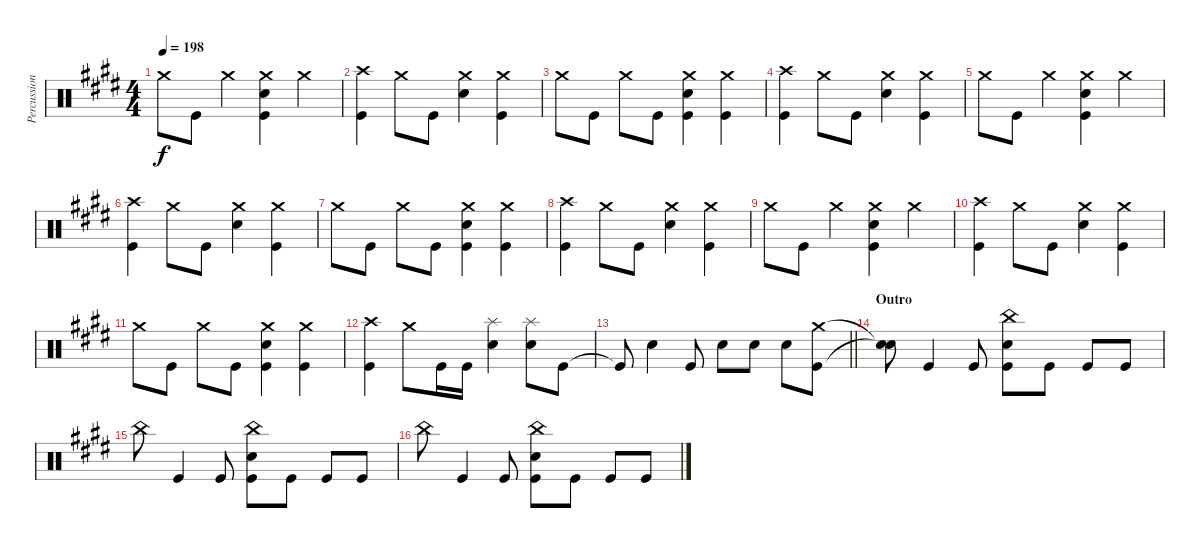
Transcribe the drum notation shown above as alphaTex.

\track ("Percussion" "Percussion") {instrument percussion}
\staff {score}
\articulation defaults
\ts (4 4)
\tempo 198
\clef neutral
\ks e "Crash medium (hit)".8{dy f} "Kick (hit)".8 "Crash medium (hit)".4
("Crash medium (hit)" "Electric Snare (hit)" "Kick (hit)").4 "Crash medium (hit)".4 |
("Crash high (hit)" "Kick (hit)").4 "Crash medium (hit)".8 "Kick (hit)".8 ("Crash medium (hit)" "Electric Snare (hit)").4 ("Crash medium (hit)" "Kick (hit)").4 |
"Crash medium (hit)".8 "Kick (hit)".8 "Crash medium (hit)".8 "Kick (hit)".8 ("Crash medium (hit)" "Electric Snare (hit)" "Kick (hit)").4 ("Crash medium (hit)" "Kick (hit)").4 |
("Crash high (hit)" "Kick (hit)").4 "Crash medium (hit)".8 "Kick (hit)".8 ("Crash medium (hit)" "Electric Snare (hit)").4 ("Crash medium (hit)" "Kick (hit)").4 |
"Crash medium (hit)".8 "Kick (hit)".8 "Crash medium (hit)".4 ("Crash medium (hit)" "Electric Snare (hit)" "Kick (hit)").4 "Crash medium (hit)".4 |
("Crash high (hit)" "Kick (hit)").4 "Crash medium (hit)".8 "Kick (hit)".8 ("Crash medium (hit)" "Electric Snare (hit)").4 ("Crash medium (hit)" "Kick (hit)").4 |
"Crash medium (hit)".8 "Kick (hit)".8 "Crash medium (hit)".8 "Kick (hit)".8 ("Crash medium (hit)" "Electric Snare (hit)" "Kick (hit)").4 ("Crash medium (hit)" "Kick (hit)").4 |
("Crash high (hit)" "Kick (hit)").4 "Crash medium (hit)".8 "Kick (hit)".8 ("Crash medium (hit)" "Electric Snare (hit)").4 ("Crash medium (hit)" "Kick (hit)").4 |
"Crash medium (hit)".8 "Kick (hit)".8 "Crash medium (hit)".4 ("Crash medium (hit)" "Electric Snare (hit)" "Kick (hit)").4 "Crash medium (hit)".4 |
("Crash high (hit)" "Kick (hit)").4 "Crash medium (hit)".8 "Kick (hit)".8 ("Crash medium (hit)" "Electric Snare (hit)").4 ("Crash medium (hit)" "Kick (hit)").4 |
"Crash medium (hit)".8 "Kick (hit)".8 "Crash medium (hit)".8 "Kick (hit)".8 ("Crash medium (hit)" "Electric Snare (hit)" "Kick (hit)").4 ("Crash medium (hit)" "Kick (hit)").4 |
("Crash high (hit)" "Kick (hit)").4 "Crash medium (hit)".8 "Kick (hit)".16 "Kick (hit)".16 ("Splash (hit)" "Electric Snare (hit)").4 ("Splash (hit)" "Electric Snare (hit)").8 "Kick (hit)".8 |
\barLineRight lightlight "Kick (hit)"{t}.8 "Electric Snare (hit)".4 "Kick (hit)".8 "Electric Snare (hit)".8 "Electric Snare (hit)".8 "Electric Snare (hit)".8
("Crash medium (hit)" "Kick (hit)").8 |
\section ("" "Outro")
("Snare (hit)"{t} "Snare (hit)"{t}).8 "Kick (hit)".4 "Kick (hit)".8 ("China (hit)" "Electric Snare (hit)" "Kick (hit)").8 "Kick (hit)".8 "Kick (hit)".8 "Kick (hit)".8 |
"China (hit)".8 "Kick (hit)".4 "Kick (hit)".8 ("China (hit)" "Electric Snare (hit)" "Kick (hit)").8 "Kick (hit)".8 "Kick (hit)".8 "Kick (hit)".8 |
"China (hit)".8 "Kick (hit)".4 "Kick (hit)".8 ("China (hit)" "Electric Snare (hit)" "Kick (hit)").8 "Kick (hit)".8 "Kick (hit)".8 "Kick (hit)".8
